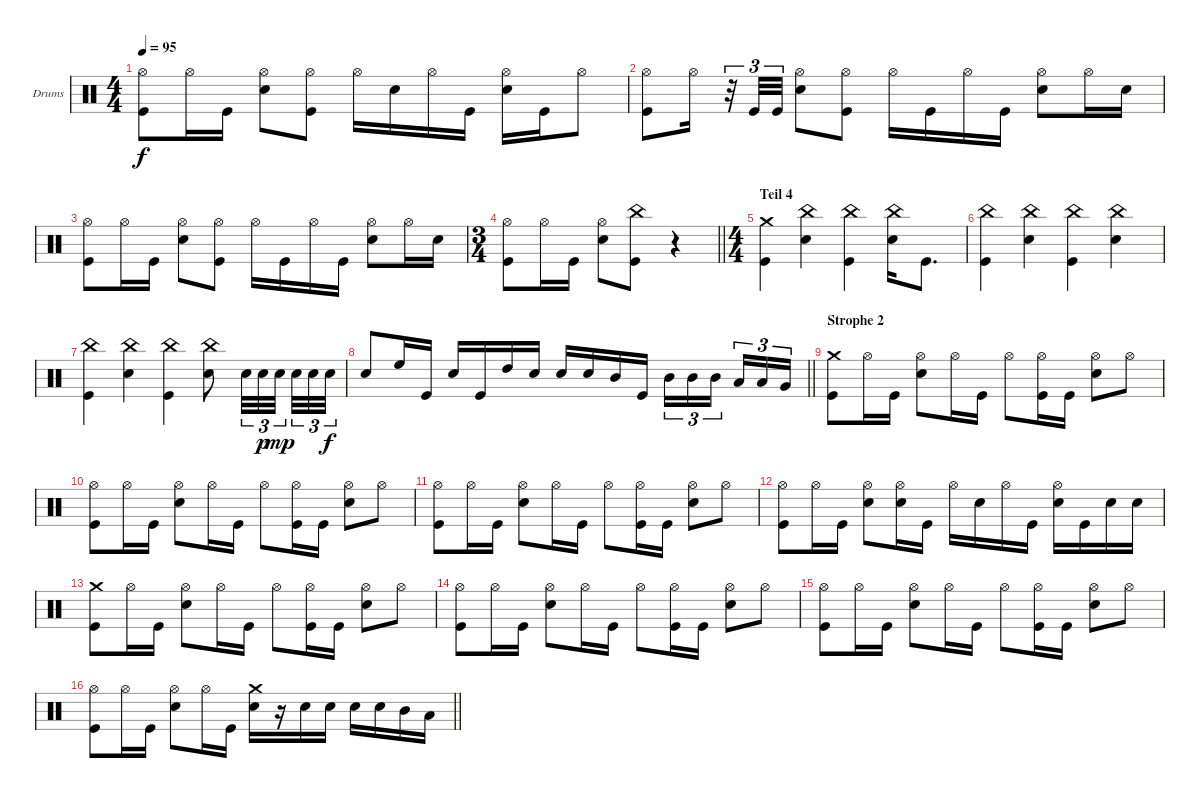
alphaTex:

\bracketExtendMode groupsimilarinstruments
\firstSystemTrackNameOrientation horizontal
\otherSystemsTrackNameOrientation horizontal
\track ("Drumkit" "Drums") {instrument percussion}
\staff {score}
\articulation defaults
\ts (4 4)
\tempo 95
\clef neutral
\ks c
("Hi-Hat (open)" "Kick (hit)").8{dy f} "Hi-Hat (open)".16 "Kick (hit)".16 ("Hi-Hat (open)" "Snare (hit) 2").8 ("Hi-Hat (open)" "Kick (hit)").8 "Hi-Hat (open)".16 "Snare (hit) 2".16 "Hi-Hat (open)".16 "Kick (hit)".16 ("Hi-Hat (open)" "Snare (hit) 2").16 "Kick (hit)".16 "Hi-Hat (open)".8 |
("Hi-Hat (open)" "Kick (hit)").8 "Hi-Hat (open)".16 r.32{tu (3 2)} "Kick (hit)".32{tu (3 2)} "Kick (hit)".32{tu (3 2)} ("Hi-Hat (open)" "Snare (hit) 2").8 ("Hi-Hat (open)" "Kick (hit)").8 "Hi-Hat (open)".16 "Kick (hit)".16 "Hi-Hat (open)".16 "Kick (hit)".16 ("Hi-Hat (open)" "Snare (hit) 2").8 "Hi-Hat (open)".16 "Snare (hit) 2".16 |
("Hi-Hat (open)" "Kick (hit)").8 "Hi-Hat (open)".16 "Kick (hit)".16 ("Hi-Hat (open)" "Snare (hit) 2").8 ("Hi-Hat (open)" "Kick (hit)").8 "Hi-Hat (open)".16 "Kick (hit)".16 "Hi-Hat (open)".16 "Kick (hit)".16 ("Hi-Hat (open)" "Snare (hit) 2").8 "Hi-Hat (open)".16 "Snare (hit) 2".16 |
\ts (3 4)
\barLineRight lightlight
("Hi-Hat (open)" "Kick (hit)").8 "Hi-Hat (open)".16 "Kick (hit)".16 ("Hi-Hat (open)" "Snare (hit) 2").8 ("China (hit)" "Kick (hit)").8 r.4 |
\ts (4 4)
\section ("" "Teil 4")
("Crash medium (hit)" "Kick (hit)").4 ("China (hit)" "Snare (hit) 2").4 ("China (hit)" "Kick (hit)").4 ("China (hit)" "Snare (hit) 2").16 "Kick (hit)".8{d} |
("China (hit)" "Kick (hit)").4 ("China (hit)" "Snare (hit) 2").4 ("China (hit)" "Kick (hit)").4 ("China (hit)" "Snare (hit) 2").4 |
("China (hit)" "Kick (hit)").4 ("China (hit)" "Snare (hit) 2").4 ("China (hit)" "Kick (hit)").4 ("China (hit)" "Snare (hit) 2").8 "Snare (hit) 2".32{tu (3 2)} "Snare (hit) 2".32{tu (3 2) dy p} "Snare (hit) 2".32{tu (3 2) dy mp} "Snare (hit) 2".32{tu (3 2)} "Snare (hit) 2".32{tu (3 2)} "Snare (hit) 2".32{tu (3 2) dy f} |
\barLineRight lightlight "Snare (hit) 2".8 "High Floor Tom (hit)".16 "Kick (hit)".16 "Snare (hit) 2".16 "Kick (hit)".16 "High Tom (hit)".16 "Snare (hit) 2".16 "Snare (hit) 2".16 "Snare (hit) 2".16 "Mid Tom (hit)".16 "Kick (hit)".16 "Mid Tom (hit)".16{tu (3 2)} "Mid Tom (hit)".16{tu (3 2)} "Mid Tom (hit)".16{tu (3 2)} "Low Tom (hit)".16{tu (3 2)} "Low Tom (hit)".16{tu (3 2)} "Very Low Tom (hit)".16{tu (3 2)}
|
\section ("" "Strophe 2")
("Crash medium (hit)" "Kick (hit)").8 "Hi-Hat (open)".16 "Kick (hit)".16 ("Hi-Hat (open)" "Snare (hit) 2").8 "Hi-Hat (open)".16 "Kick (hit)".16 "Hi-Hat (open)".8 ("Hi-Hat (open)" "Kick (hit)").16 "Kick (hit)".16 ("Hi-Hat (open)" "Snare (hit) 2").8 "Hi-Hat (open)".8 |
("Hi-Hat (open)" "Kick (hit)").8 "Hi-Hat (open)".16 "Kick (hit)".16 ("Hi-Hat (open)" "Snare (hit) 2").8 "Hi-Hat (open)".16 "Kick (hit)".16 "Hi-Hat (open)".8 ("Hi-Hat (open)" "Kick (hit)").16 "Kick (hit)".16 ("Hi-Hat (open)" "Snare (hit) 2").8 "Hi-Hat (open)".8 |
("Hi-Hat (open)" "Kick (hit)").8 "Hi-Hat (open)".16 "Kick (hit)".16 ("Hi-Hat (open)" "Snare (hit) 2").8 "Hi-Hat (open)".16 "Kick (hit)".16 "Hi-Hat (open)".8 ("Hi-Hat (open)" "Kick (hit)").16 "Kick (hit)".16 ("Hi-Hat (open)" "Snare (hit) 2").8 "Hi-Hat (open)".8 |
("Hi-Hat (open)" "Kick (hit)").8 "Hi-Hat (open)".16 "Kick (hit)".16 ("Hi-Hat (open)" "Snare (hit) 2").8 ("Hi-Hat (open)" "Snare (hit) 2").16 "Kick (hit)".16 "Hi-Hat (open)".16 "Snare (hit) 2".16 "Hi-Hat (open)".16 "Kick (hit)".16 ("Hi-Hat (open)" "Snare (hit) 2").16 "Kick (hit)".16 "Snare (hit) 2".16 "Snare (hit) 2".16 |
("Crash medium (hit)" "Kick (hit)").8 "Hi-Hat (open)".16 "Kick (hit)".16 ("Hi-Hat (open)" "Snare (hit) 2").8 "Hi-Hat (open)".16 "Kick (hit)".16 "Hi-Hat (open)".8 ("Hi-Hat (open)" "Kick (hit)").16 "Kick (hit)".16 ("Hi-Hat (open)" "Snare (hit) 2").8 "Hi-Hat (open)".8 |
("Hi-Hat (open)" "Kick (hit)").8 "Hi-Hat (open)".16 "Kick (hit)".16 ("Hi-Hat (open)" "Snare (hit) 2").8 "Hi-Hat (open)".16 "Kick (hit)".16 "Hi-Hat (open)".8 ("Hi-Hat (open)" "Kick (hit)").16 "Kick (hit)".16 ("Hi-Hat (open)" "Snare (hit) 2").8 "Hi-Hat (open)".8 |
("Hi-Hat (open)" "Kick (hit)").8 "Hi-Hat (open)".16 "Kick (hit)".16 ("Hi-Hat (open)" "Snare (hit) 2").8 "Hi-Hat (open)".16 "Kick (hit)".16 "Hi-Hat (open)".8 ("Hi-Hat (open)" "Kick (hit)").16 "Kick (hit)".16 ("Hi-Hat (open)" "Snare (hit) 2").8 "Hi-Hat (open)".8 |
\barLineRight lightlight
("Hi-Hat (open)" "Kick (hit)").8 "Hi-Hat (open)".16 "Kick (hit)".16 ("Hi-Hat (open)" "Snare (hit) 2").8 "Hi-Hat (open)".16 "Kick (hit)".16 ("Crash medium (hit)" "Snare (hit) 2").16 r.16 "Snare (hit) 2".16 "Snare (hit) 2".16 "Snare (hit) 2".16 "Snare (hit) 2".16 "Mid Tom (hit)".16 "Low Tom (hit)".16
